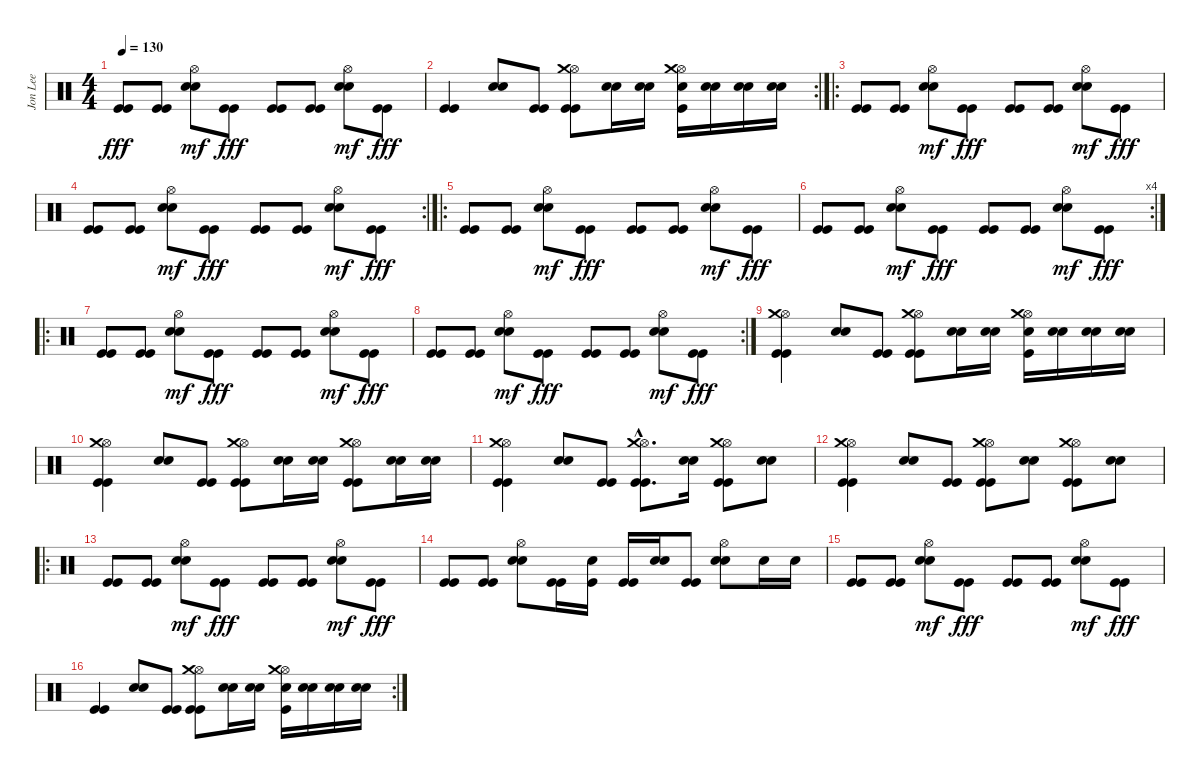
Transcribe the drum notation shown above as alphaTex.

\track ("Jon Lee" "Jon Lee") {instrument percussion}
\staff {score}
\articulation defaults
\ts (4 4)
\tempo 130
\clef neutral
\ks c
("Kick (hit)" "Kick (hit)").8{dy fff} ("Kick (hit)" "Kick (hit)").8 ("Electric Snare (hit)" "Snare (hit) 2" "Hi-Hat (open)").8{dy mf} ("Kick (hit)" "Kick (hit)").8{dy fff} ("Kick (hit)" "Kick (hit)").8 ("Kick (hit)" "Kick (hit)").8 ("Electric Snare (hit)" "Snare (hit) 2" "Hi-Hat (open)").8{dy mf} ("Kick (hit)" "Kick (hit)").8{dy fff} |
\rc 2
("Kick (hit)" "Kick (hit)").4 ("Electric Snare (hit)" "Snare (hit) 2").8 ("Kick (hit)" "Kick (hit)").8 ("Kick (hit)" "Kick (hit)" "Hi-Hat (open)" "Crash medium (hit)").8 ("Electric Snare (hit)" "Snare (hit) 2").16 ("Electric Snare (hit)" "Snare (hit) 2").16 ("Electric Snare (hit)" "Kick (hit)" "Hi-Hat (open)" "Crash medium (hit)").16 ("Electric Snare (hit)" "Snare (hit) 2").16 ("Electric Snare (hit)" "Snare (hit) 2").16 ("Electric Snare (hit)" "Snare (hit) 2").16 |
\ro
("Kick (hit)" "Kick (hit)").8 ("Kick (hit)" "Kick (hit)").8 ("Electric Snare (hit)" "Snare (hit) 2" "Hi-Hat (open)").8{dy mf} ("Kick (hit)" "Kick (hit)").8{dy fff} ("Kick (hit)" "Kick (hit)").8 ("Kick (hit)" "Kick (hit)").8 ("Electric Snare (hit)" "Snare (hit) 2" "Hi-Hat (open)").8{dy mf} ("Kick (hit)" "Kick (hit)").8{dy fff} |
\rc 2
("Kick (hit)" "Kick (hit)").8 ("Kick (hit)" "Kick (hit)").8 ("Electric Snare (hit)" "Snare (hit) 2" "Hi-Hat (open)").8{dy mf} ("Kick (hit)" "Kick (hit)").8{dy fff} ("Kick (hit)" "Kick (hit)").8 ("Kick (hit)" "Kick (hit)").8 ("Electric Snare (hit)" "Snare (hit) 2" "Hi-Hat (open)").8{dy mf} ("Kick (hit)" "Kick (hit)").8{dy fff} |
\ro
("Kick (hit)" "Kick (hit)").8 ("Kick (hit)" "Kick (hit)").8 ("Electric Snare (hit)" "Snare (hit) 2" "Hi-Hat (open)").8{dy mf} ("Kick (hit)" "Kick (hit)").8{dy fff} ("Kick (hit)" "Kick (hit)").8 ("Kick (hit)" "Kick (hit)").8 ("Electric Snare (hit)" "Snare (hit) 2" "Hi-Hat (open)").8{dy mf} ("Kick (hit)" "Kick (hit)").8{dy fff} |
\rc 4
("Kick (hit)" "Kick (hit)").8 ("Kick (hit)" "Kick (hit)").8 ("Electric Snare (hit)" "Snare (hit) 2" "Hi-Hat (open)").8{dy mf} ("Kick (hit)" "Kick (hit)").8{dy fff} ("Kick (hit)" "Kick (hit)").8 ("Kick (hit)" "Kick (hit)").8 ("Electric Snare (hit)" "Snare (hit) 2" "Hi-Hat (open)").8{dy mf} ("Kick (hit)" "Kick (hit)").8{dy fff} |
\ro
("Kick (hit)" "Kick (hit)").8 ("Kick (hit)" "Kick (hit)").8 ("Electric Snare (hit)" "Snare (hit) 2" "Hi-Hat (open)").8{dy mf} ("Kick (hit)" "Kick (hit)").8{dy fff} ("Kick (hit)" "Kick (hit)").8 ("Kick (hit)" "Kick (hit)").8 ("Electric Snare (hit)" "Snare (hit) 2" "Hi-Hat (open)").8{dy mf} ("Kick (hit)" "Kick (hit)").8{dy fff} |
\rc 2
("Kick (hit)" "Kick (hit)").8 ("Kick (hit)" "Kick (hit)").8 ("Electric Snare (hit)" "Snare (hit) 2" "Hi-Hat (open)").8{dy mf} ("Kick (hit)" "Kick (hit)").8{dy fff} ("Kick (hit)" "Kick (hit)").8 ("Kick (hit)" "Kick (hit)").8 ("Electric Snare (hit)" "Snare (hit) 2" "Hi-Hat (open)").8{dy mf} ("Kick (hit)" "Kick (hit)").8{dy fff} |
("Kick (hit)" "Kick (hit)" "Hi-Hat (open)" "Crash medium (hit)").4 ("Electric Snare (hit)" "Snare (hit) 2").8 ("Kick (hit)" "Kick (hit)").8 ("Kick (hit)" "Kick (hit)" "Hi-Hat (open)" "Crash medium (hit)").8 ("Electric Snare (hit)" "Snare (hit) 2").16 ("Electric Snare (hit)" "Snare (hit) 2").16 ("Electric Snare (hit)" "Kick (hit)" "Hi-Hat (open)" "Crash medium (hit)").16 ("Electric Snare (hit)" "Snare (hit) 2").16 ("Electric Snare (hit)" "Snare (hit) 2").16 ("Electric Snare (hit)" "Snare (hit) 2").16 |
("Kick (hit)" "Kick (hit)" "Hi-Hat (open)" "Crash medium (hit)").4 ("Electric Snare (hit)" "Snare (hit) 2").8 ("Kick (hit)" "Kick (hit)").8 ("Kick (hit)" "Kick (hit)" "Hi-Hat (open)" "Crash medium (hit)").8 ("Electric Snare (hit)" "Snare (hit) 2").16 ("Electric Snare (hit)" "Snare (hit) 2").16 ("Kick (hit)" "Kick (hit)" "Hi-Hat (open)" "Crash medium (hit)").8 ("Electric Snare (hit)" "Snare (hit) 2").16 ("Electric Snare (hit)" "Snare (hit) 2").16 |
("Kick (hit)" "Kick (hit)" "Hi-Hat (open)" "Crash medium (hit)").4 ("Electric Snare (hit)" "Snare (hit) 2").8 ("Kick (hit)" "Kick (hit)").8 ("Kick (hit)"{hac} "Kick (hit)"{hac} "Hi-Hat (open)"{hac} "Crash medium (hit)"{hac}).8{d} ("Electric Snare (hit)" "Snare (hit) 2").16 ("Kick (hit)" "Kick (hit)" "Hi-Hat (open)" "Crash medium (hit)").8 ("Electric Snare (hit)" "Snare (hit) 2").8 |
("Kick (hit)" "Kick (hit)" "Hi-Hat (open)" "Crash medium (hit)").4 ("Electric Snare (hit)" "Snare (hit) 2").8 ("Kick (hit)" "Kick (hit)").8 ("Kick (hit)" "Kick (hit)" "Hi-Hat (open)" "Crash medium (hit)").8 ("Electric Snare (hit)" "Snare (hit) 2").8 ("Kick (hit)" "Kick (hit)" "Hi-Hat (open)" "Crash medium (hit)").8 ("Electric Snare (hit)" "Snare (hit) 2").8 |
\ro
("Kick (hit)" "Kick (hit)").8 ("Kick (hit)" "Kick (hit)").8 ("Electric Snare (hit)" "Snare (hit) 2" "Hi-Hat (open)").8{dy mf} ("Kick (hit)" "Kick (hit)").8{dy fff} ("Kick (hit)" "Kick (hit)").8 ("Kick (hit)" "Kick (hit)").8 ("Electric Snare (hit)" "Snare (hit) 2" "Hi-Hat (open)").8{dy mf} ("Kick (hit)" "Kick (hit)").8{dy fff} |
("Kick (hit)" "Kick (hit)").8 ("Kick (hit)" "Kick (hit)").8 ("Electric Snare (hit)" "Snare (hit) 2" "Hi-Hat (open)").8 ("Kick (hit)" "Kick (hit)").16 ("Snare (hit) 2" "Kick (hit)").16 ("Kick (hit)" "Kick (hit)").16 ("Snare (hit) 2" "Electric Snare (hit)").16 ("Kick (hit)" "Kick (hit)").8 ("Snare (hit) 2" "Electric Snare (hit)" "Hi-Hat (open)").8 "Snare (hit) 2".16 "Snare (hit) 2".16 |
("Kick (hit)" "Kick (hit)").8 ("Kick (hit)" "Kick (hit)").8 ("Electric Snare (hit)" "Snare (hit) 2" "Hi-Hat (open)").8{dy mf} ("Kick (hit)" "Kick (hit)").8{dy fff} ("Kick (hit)" "Kick (hit)").8 ("Kick (hit)" "Kick (hit)").8 ("Electric Snare (hit)" "Snare (hit) 2" "Hi-Hat (open)").8{dy mf} ("Kick (hit)" "Kick (hit)").8{dy fff} |
\rc 2
("Kick (hit)" "Kick (hit)").4 ("Electric Snare (hit)" "Snare (hit) 2").8 ("Kick (hit)" "Kick (hit)").8 ("Kick (hit)" "Kick (hit)" "Hi-Hat (open)" "Crash medium (hit)").8 ("Electric Snare (hit)" "Snare (hit) 2").16 ("Electric Snare (hit)" "Snare (hit) 2").16 ("Electric Snare (hit)" "Kick (hit)" "Hi-Hat (open)" "Crash medium (hit)").16 ("Electric Snare (hit)" "Snare (hit) 2").16 ("Electric Snare (hit)" "Snare (hit) 2").16 ("Electric Snare (hit)" "Snare (hit) 2").16
